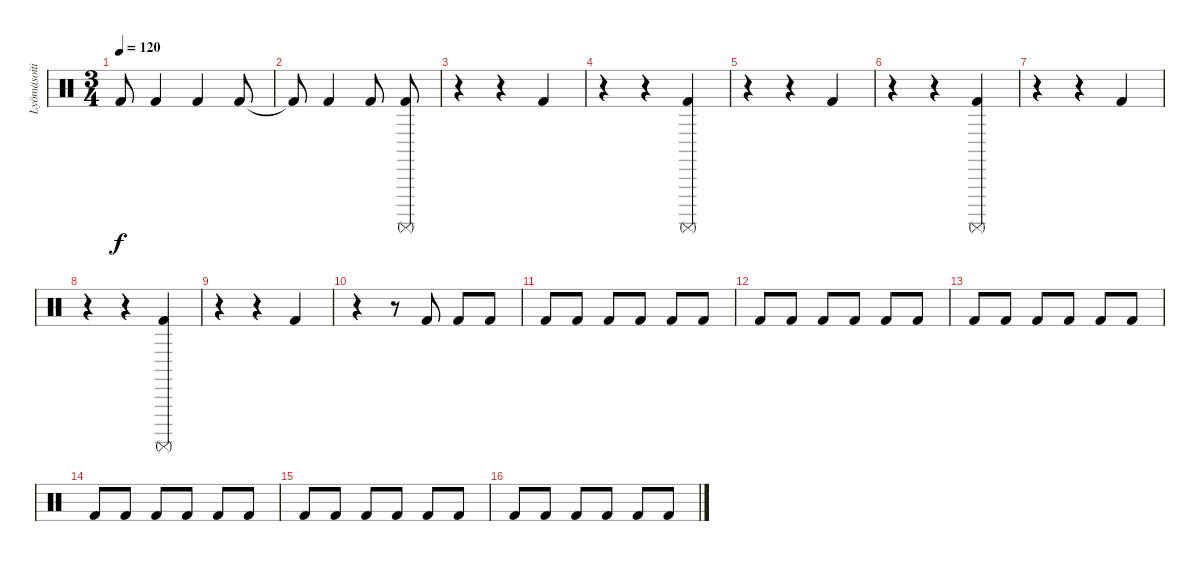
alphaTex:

\track ("Lyömäsoitin" "Lyömäsoiti") {solo instrument percussion}
\staff {score}
\articulation defaults
\ts (3 4)
\tempo 120
\clef neutral
\ks c "Kick (hit) 2"{t}.8{dy f} "Kick (hit) 2".4 "Kick (hit) 2".4 "Kick (hit) 2".8
|
"Kick (hit) 2"{t}.8 "Kick (hit) 2".4 "Kick (hit) 2".8 ("Kick (hit) 2" "Surdo (mute)").8 |
r.4 r.4 "Kick (hit) 2".4 |
r.4 r.4 ("Kick (hit) 2" "Surdo (mute)").4 |
r.4 r.4 "Kick (hit) 2".4 |
r.4 r.4 ("Kick (hit) 2" "Surdo (mute)").4 |
r.4 r.4 "Kick (hit) 2".4 |
r.4 r.4 ("Kick (hit) 2" "Surdo (mute)").4 |
r.4 r.4 "Kick (hit) 2".4 |
r.4 r.8 "Kick (hit) 2".8 "Kick (hit) 2".8 "Kick (hit) 2".8 |
"Kick (hit) 2".8 "Kick (hit) 2".8 "Kick (hit) 2".8 "Kick (hit) 2".8 "Kick (hit) 2".8 "Kick (hit) 2".8 |
"Kick (hit) 2".8 "Kick (hit) 2".8 "Kick (hit) 2".8 "Kick (hit) 2".8 "Kick (hit) 2".8 "Kick (hit) 2".8 |
"Kick (hit) 2".8 "Kick (hit) 2".8 "Kick (hit) 2".8 "Kick (hit) 2".8 "Kick (hit) 2".8 "Kick (hit) 2".8 |
"Kick (hit) 2".8 "Kick (hit) 2".8 "Kick (hit) 2".8 "Kick (hit) 2".8 "Kick (hit) 2".8 "Kick (hit) 2".8 |
"Kick (hit) 2".8 "Kick (hit) 2".8 "Kick (hit) 2".8 "Kick (hit) 2".8 "Kick (hit) 2".8 "Kick (hit) 2".8 |
"Kick (hit) 2".8 "Kick (hit) 2".8 "Kick (hit) 2".8 "Kick (hit) 2".8 "Kick (hit) 2".8 "Kick (hit) 2".8
